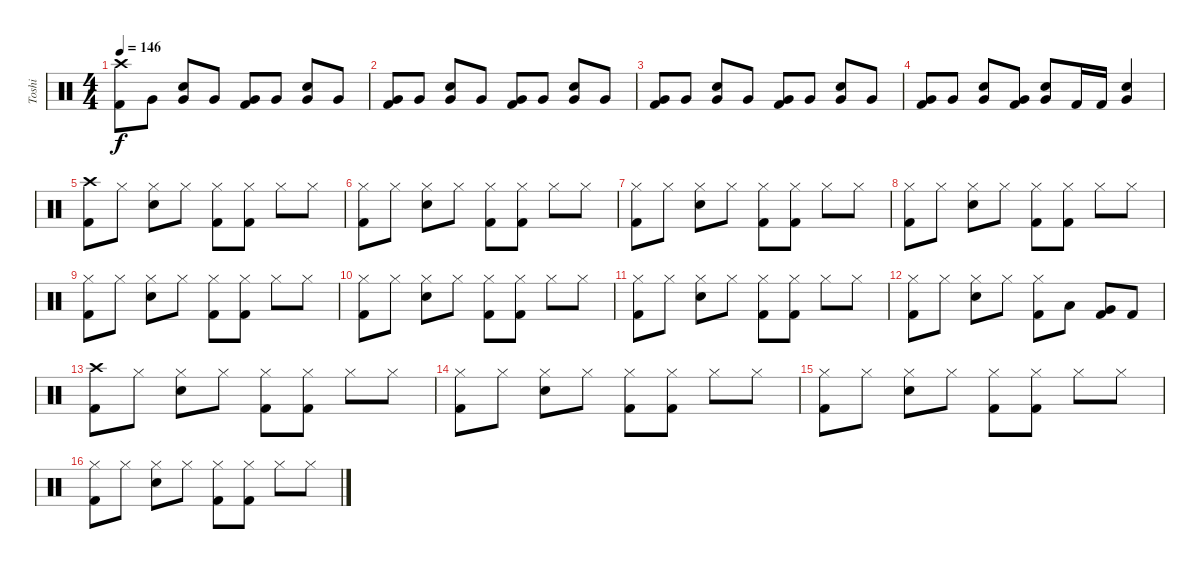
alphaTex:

\track ("Toshi" "Toshi") {instrument percussion}
\staff {score}
\articulation defaults
\ts (4 4)
\tempo 146
\clef neutral
\ks c
("Crash high (hit)" "Kick (hit) 2").8{dy f} "Very Low Tom (hit)".8 ("Very Low Tom (hit)" "Electric Snare (hit)").8 "Very Low Tom (hit)".8 ("Very Low Tom (hit)" "Kick (hit) 2").8 "Very Low Tom (hit)".8 ("Very Low Tom (hit)" "Electric Snare (hit)").8 "Very Low Tom (hit)".8 |
("Very Low Tom (hit)" "Kick (hit) 2").8 "Very Low Tom (hit)".8 ("Very Low Tom (hit)" "Electric Snare (hit)").8 "Very Low Tom (hit)".8 ("Very Low Tom (hit)" "Kick (hit) 2").8 "Very Low Tom (hit)".8 ("Very Low Tom (hit)" "Electric Snare (hit)").8 "Very Low Tom (hit)".8 |
("Very Low Tom (hit)" "Kick (hit) 2").8 "Very Low Tom (hit)".8 ("Very Low Tom (hit)" "Electric Snare (hit)").8 "Very Low Tom (hit)".8 ("Very Low Tom (hit)" "Kick (hit) 2").8 "Very Low Tom (hit)".8 ("Very Low Tom (hit)" "Electric Snare (hit)").8 "Very Low Tom (hit)".8 |
("Very Low Tom (hit)" "Kick (hit) 2").8 "Very Low Tom (hit)".8 ("Very Low Tom (hit)" "Electric Snare (hit)").8 ("Very Low Tom (hit)" "Kick (hit) 2").8 ("Very Low Tom (hit)" "Electric Snare (hit)").8 "Kick (hit) 2".16 "Kick (hit) 2".16 ("Very Low Tom (hit)" "Electric Snare (hit)").4 |
("Crash high (hit)" "Kick (hit) 2").8 "Hi-Hat (closed)".8 ("Hi-Hat (closed)" "Electric Snare (hit)").8 "Hi-Hat (closed)".8 ("Hi-Hat (closed)" "Kick (hit) 2").8 ("Hi-Hat (closed)" "Kick (hit) 2").8 "Hi-Hat (closed)".8 "Hi-Hat (closed)".8 |
("Hi-Hat (closed)" "Kick (hit) 2").8 "Hi-Hat (closed)".8 ("Hi-Hat (closed)" "Electric Snare (hit)").8 "Hi-Hat (closed)".8 ("Hi-Hat (closed)" "Kick (hit) 2").8 ("Hi-Hat (closed)" "Kick (hit) 2").8 "Hi-Hat (closed)".8 "Hi-Hat (closed)".8 |
("Hi-Hat (closed)" "Kick (hit) 2").8 "Hi-Hat (closed)".8 ("Hi-Hat (closed)" "Electric Snare (hit)").8 "Hi-Hat (closed)".8 ("Hi-Hat (closed)" "Kick (hit) 2").8 ("Hi-Hat (closed)" "Kick (hit) 2").8 "Hi-Hat (closed)".8 "Hi-Hat (closed)".8 |
("Hi-Hat (closed)" "Kick (hit) 2").8 "Hi-Hat (closed)".8 ("Hi-Hat (closed)" "Electric Snare (hit)").8 "Hi-Hat (closed)".8 ("Hi-Hat (closed)" "Kick (hit) 2").8 ("Hi-Hat (closed)" "Kick (hit) 2").8 "Hi-Hat (closed)".8 "Hi-Hat (closed)".8 |
("Hi-Hat (closed)" "Kick (hit) 2").8 "Hi-Hat (closed)".8 ("Hi-Hat (closed)" "Electric Snare (hit)").8 "Hi-Hat (closed)".8 ("Hi-Hat (closed)" "Kick (hit) 2").8 ("Hi-Hat (closed)" "Kick (hit) 2").8 "Hi-Hat (closed)".8 "Hi-Hat (closed)".8 |
("Hi-Hat (closed)" "Kick (hit) 2").8 "Hi-Hat (closed)".8 ("Hi-Hat (closed)" "Electric Snare (hit)").8 "Hi-Hat (closed)".8 ("Hi-Hat (closed)" "Kick (hit) 2").8 ("Hi-Hat (closed)" "Kick (hit) 2").8 "Hi-Hat (closed)".8 "Hi-Hat (closed)".8 |
("Hi-Hat (closed)" "Kick (hit) 2").8 "Hi-Hat (closed)".8 ("Hi-Hat (closed)" "Electric Snare (hit)").8 "Hi-Hat (closed)".8 ("Hi-Hat (closed)" "Kick (hit) 2").8 ("Hi-Hat (closed)" "Kick (hit) 2").8 "Hi-Hat (closed)".8 "Hi-Hat (closed)".8 |
("Hi-Hat (closed)" "Kick (hit) 2").8 "Hi-Hat (closed)".8 ("Hi-Hat (closed)" "Electric Snare (hit)").8 "Hi-Hat (closed)".8 ("Hi-Hat (closed)" "Kick (hit) 2").8 "Low Tom (hit)".8 ("Very Low Tom (hit)" "Kick (hit) 2").8 "Kick (hit) 2".8 |
("Crash high (hit)" "Kick (hit) 2").8 "Hi-Hat (closed)".8 ("Hi-Hat (closed)" "Electric Snare (hit)").8 "Hi-Hat (closed)".8 ("Hi-Hat (closed)" "Kick (hit) 2").8 ("Hi-Hat (closed)" "Kick (hit) 2").8 "Hi-Hat (closed)".8 "Hi-Hat (closed)".8 |
("Hi-Hat (closed)" "Kick (hit) 2").8 "Hi-Hat (closed)".8 ("Hi-Hat (closed)" "Electric Snare (hit)").8 "Hi-Hat (closed)".8 ("Hi-Hat (closed)" "Kick (hit) 2").8 ("Hi-Hat (closed)" "Kick (hit) 2").8 "Hi-Hat (closed)".8 "Hi-Hat (closed)".8 |
("Hi-Hat (closed)" "Kick (hit) 2").8 "Hi-Hat (closed)".8 ("Hi-Hat (closed)" "Electric Snare (hit)").8 "Hi-Hat (closed)".8 ("Hi-Hat (closed)" "Kick (hit) 2").8 ("Hi-Hat (closed)" "Kick (hit) 2").8 "Hi-Hat (closed)".8 "Hi-Hat (closed)".8 |
("Hi-Hat (closed)" "Kick (hit) 2").8 "Hi-Hat (closed)".8 ("Hi-Hat (closed)" "Electric Snare (hit)").8 "Hi-Hat (closed)".8 ("Hi-Hat (closed)" "Kick (hit) 2").8 ("Hi-Hat (closed)" "Kick (hit) 2").8 "Hi-Hat (closed)".8 "Hi-Hat (closed)".8
